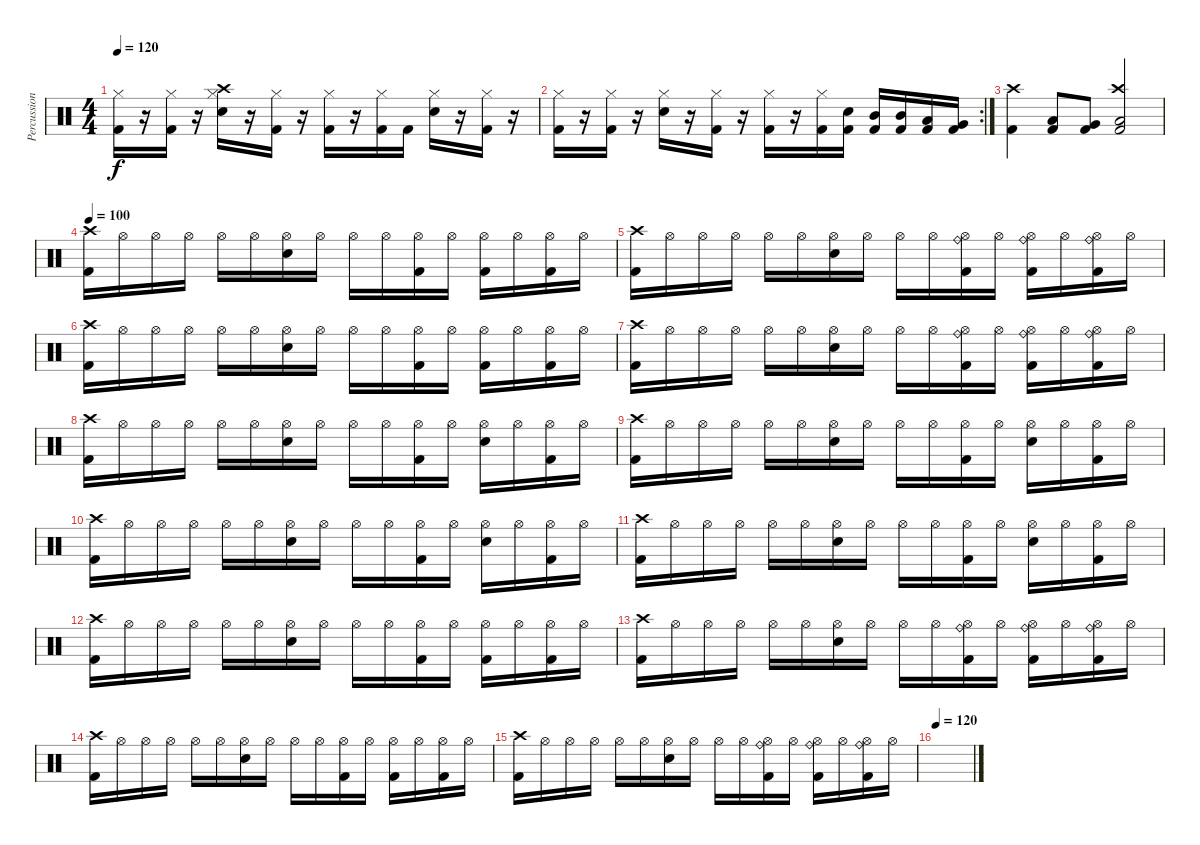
\track ("Percussion" "Percussion") {instrument percussion}
\staff {score}
\articulation defaults
\ts (4 4)
\tempo 120
\clef neutral
\ks c
("Hi-Hat (closed)" "Kick (hit) 2").16{dy f} r.16 ("Hi-Hat (closed)" "Kick (hit) 2").16 r.16 ("Crash high (hit)" "Hi-Hat (closed)" "Snare (hit) 2").16 r.16 ("Hi-Hat (closed)" "Kick (hit) 2").16 r.16 ("Hi-Hat (closed)" "Kick (hit) 2").16 r.16 ("Hi-Hat (closed)" "Kick (hit) 2").16 "Kick (hit) 2".16 ("Hi-Hat (closed)" "Snare (hit) 2").16 r.16 ("Hi-Hat (closed)" "Kick (hit) 2").16 r.16 |
\rc 2
("Hi-Hat (closed)" "Kick (hit) 2").16 r.16 ("Hi-Hat (closed)" "Kick (hit) 2").16 r.16 ("Hi-Hat (closed)" "Snare (hit) 2").16 r.16 ("Hi-Hat (closed)" "Kick (hit) 2").16 r.16 ("Hi-Hat (closed)" "Kick (hit) 2").16 r.16 ("Hi-Hat (closed)" "Kick (hit) 2").16 ("Snare (hit) 2" "Kick (hit) 2").16 ("Mid Tom (hit)" "Kick (hit) 2").16 ("Mid Tom (hit)" "Kick (hit) 2").16 ("Low Tom (hit)" "Kick (hit) 2").16 ("Very Low Tom (hit)" "Kick (hit) 2").16 |
("Crash high (hit)" "Kick (hit) 2").4 ("Low Tom (hit)" "Kick (hit) 2").8 ("Very Low Tom (hit)" "Kick (hit) 2").8 ("Crash high (hit)" "Low Floor Tom (hit)" "Kick (hit) 2").2 |
\tempo 100
("Crash high (hit)" "Kick (hit) 2").16 "Hi-Hat (open)".16 "Hi-Hat (open)".16 "Hi-Hat (open)".16 "Hi-Hat (open)".16 "Hi-Hat (open)".16 ("Hi-Hat (open)" "Snare (hit) 2").16 "Hi-Hat (open)".16 "Hi-Hat (open)".16 "Hi-Hat (open)".16 ("Hi-Hat (open)" "Kick (hit) 2").16 "Hi-Hat (open)".16 ("Hi-Hat (open)" "Kick (hit) 2").16 "Hi-Hat (open)".16 ("Hi-Hat (open)" "Kick (hit) 2").16 "Hi-Hat (open)".16 |
("Crash high (hit)" "Kick (hit) 2").16 "Hi-Hat (open)".16 "Hi-Hat (open)".16 "Hi-Hat (open)".16 "Hi-Hat (open)".16 "Hi-Hat (open)".16 ("Hi-Hat (open)" "Snare (hit) 2").16 "Hi-Hat (open)".16 "Hi-Hat (open)".16 "Hi-Hat (open)".16 ("Hi-Hat (open)" "Ride (bell)" "Kick (hit) 2").16 "Hi-Hat (open)".16 ("Hi-Hat (open)" "Ride (bell)" "Kick (hit) 2").16 "Hi-Hat (open)".16 ("Hi-Hat (open)" "Ride (bell)" "Kick (hit) 2").16 "Hi-Hat (open)".16 |
("Crash high (hit)" "Kick (hit) 2").16 "Hi-Hat (open)".16 "Hi-Hat (open)".16 "Hi-Hat (open)".16 "Hi-Hat (open)".16 "Hi-Hat (open)".16 ("Hi-Hat (open)" "Snare (hit) 2").16 "Hi-Hat (open)".16 "Hi-Hat (open)".16 "Hi-Hat (open)".16 ("Hi-Hat (open)" "Kick (hit) 2").16 "Hi-Hat (open)".16 ("Hi-Hat (open)" "Kick (hit) 2").16 "Hi-Hat (open)".16 ("Hi-Hat (open)" "Kick (hit) 2").16 "Hi-Hat (open)".16 |
("Crash high (hit)" "Kick (hit) 2").16 "Hi-Hat (open)".16 "Hi-Hat (open)".16 "Hi-Hat (open)".16 "Hi-Hat (open)".16 "Hi-Hat (open)".16 ("Hi-Hat (open)" "Snare (hit) 2").16 "Hi-Hat (open)".16 "Hi-Hat (open)".16 "Hi-Hat (open)".16 ("Hi-Hat (open)" "Ride (bell)" "Kick (hit) 2").16 "Hi-Hat (open)".16 ("Hi-Hat (open)" "Ride (bell)" "Kick (hit) 2").16 "Hi-Hat (open)".16 ("Hi-Hat (open)" "Ride (bell)" "Kick (hit) 2").16 "Hi-Hat (open)".16 |
("Crash high (hit)" "Kick (hit) 2").16 "Hi-Hat (open)".16 "Hi-Hat (open)".16 "Hi-Hat (open)".16 "Hi-Hat (open)".16 "Hi-Hat (open)".16 ("Hi-Hat (open)" "Snare (hit) 2").16 "Hi-Hat (open)".16 "Hi-Hat (open)".16 "Hi-Hat (open)".16 ("Hi-Hat (open)" "Kick (hit) 2").16 "Hi-Hat (open)".16 ("Hi-Hat (open)" "Snare (hit) 2").16 "Hi-Hat (open)".16 ("Hi-Hat (open)" "Kick (hit) 2").16 "Hi-Hat (open)".16 |
("Crash high (hit)" "Kick (hit) 2").16 "Hi-Hat (open)".16 "Hi-Hat (open)".16 "Hi-Hat (open)".16 "Hi-Hat (open)".16 "Hi-Hat (open)".16 ("Hi-Hat (open)" "Snare (hit) 2").16 "Hi-Hat (open)".16 "Hi-Hat (open)".16 "Hi-Hat (open)".16 ("Hi-Hat (open)" "Kick (hit) 2").16 "Hi-Hat (open)".16 ("Hi-Hat (open)" "Snare (hit) 2").16 "Hi-Hat (open)".16 ("Hi-Hat (open)" "Kick (hit) 2").16 "Hi-Hat (open)".16 |
("Crash high (hit)" "Kick (hit) 2").16 "Hi-Hat (open)".16 "Hi-Hat (open)".16 "Hi-Hat (open)".16 "Hi-Hat (open)".16 "Hi-Hat (open)".16 ("Hi-Hat (open)" "Snare (hit) 2").16 "Hi-Hat (open)".16 "Hi-Hat (open)".16 "Hi-Hat (open)".16 ("Hi-Hat (open)" "Kick (hit) 2").16 "Hi-Hat (open)".16 ("Hi-Hat (open)" "Snare (hit) 2").16 "Hi-Hat (open)".16 ("Hi-Hat (open)" "Kick (hit) 2").16 "Hi-Hat (open)".16 |
("Crash high (hit)" "Kick (hit) 2").16 "Hi-Hat (open)".16 "Hi-Hat (open)".16 "Hi-Hat (open)".16 "Hi-Hat (open)".16 "Hi-Hat (open)".16 ("Hi-Hat (open)" "Snare (hit) 2").16 "Hi-Hat (open)".16 "Hi-Hat (open)".16 "Hi-Hat (open)".16 ("Hi-Hat (open)" "Kick (hit) 2").16 "Hi-Hat (open)".16 ("Hi-Hat (open)" "Snare (hit) 2").16 "Hi-Hat (open)".16 ("Hi-Hat (open)" "Kick (hit) 2").16 "Hi-Hat (open)".16 |
("Crash high (hit)" "Kick (hit) 2").16 "Hi-Hat (open)".16 "Hi-Hat (open)".16 "Hi-Hat (open)".16 "Hi-Hat (open)".16 "Hi-Hat (open)".16 ("Hi-Hat (open)" "Snare (hit) 2").16 "Hi-Hat (open)".16 "Hi-Hat (open)".16 "Hi-Hat (open)".16 ("Hi-Hat (open)" "Kick (hit) 2").16 "Hi-Hat (open)".16 ("Hi-Hat (open)" "Kick (hit) 2").16 "Hi-Hat (open)".16 ("Hi-Hat (open)" "Kick (hit) 2").16 "Hi-Hat (open)".16 |
("Crash high (hit)" "Kick (hit) 2").16 "Hi-Hat (open)".16 "Hi-Hat (open)".16 "Hi-Hat (open)".16 "Hi-Hat (open)".16 "Hi-Hat (open)".16 ("Hi-Hat (open)" "Snare (hit) 2").16 "Hi-Hat (open)".16 "Hi-Hat (open)".16 "Hi-Hat (open)".16 ("Hi-Hat (open)" "Ride (bell)" "Kick (hit) 2").16 "Hi-Hat (open)".16 ("Hi-Hat (open)" "Ride (bell)" "Kick (hit) 2").16 "Hi-Hat (open)".16 ("Hi-Hat (open)" "Ride (bell)" "Kick (hit) 2").16 "Hi-Hat (open)".16 |
("Crash high (hit)" "Kick (hit) 2").16 "Hi-Hat (open)".16 "Hi-Hat (open)".16 "Hi-Hat (open)".16 "Hi-Hat (open)".16 "Hi-Hat (open)".16 ("Hi-Hat (open)" "Snare (hit) 2").16 "Hi-Hat (open)".16 "Hi-Hat (open)".16 "Hi-Hat (open)".16 ("Hi-Hat (open)" "Kick (hit) 2").16 "Hi-Hat (open)".16 ("Hi-Hat (open)" "Kick (hit) 2").16 "Hi-Hat (open)".16 ("Hi-Hat (open)" "Kick (hit) 2").16 "Hi-Hat (open)".16 |
("Crash high (hit)" "Kick (hit) 2").16 "Hi-Hat (open)".16 "Hi-Hat (open)".16 "Hi-Hat (open)".16 "Hi-Hat (open)".16 "Hi-Hat (open)".16 ("Hi-Hat (open)" "Snare (hit) 2").16 "Hi-Hat (open)".16 "Hi-Hat (open)".16 "Hi-Hat (open)".16 ("Hi-Hat (open)" "Ride (bell)" "Kick (hit) 2").16 "Hi-Hat (open)".16 ("Hi-Hat (open)" "Ride (bell)" "Kick (hit) 2").16 "Hi-Hat (open)".16 ("Hi-Hat (open)" "Ride (bell)" "Kick (hit) 2").16 "Hi-Hat (open)".16 |
\tempo 120
